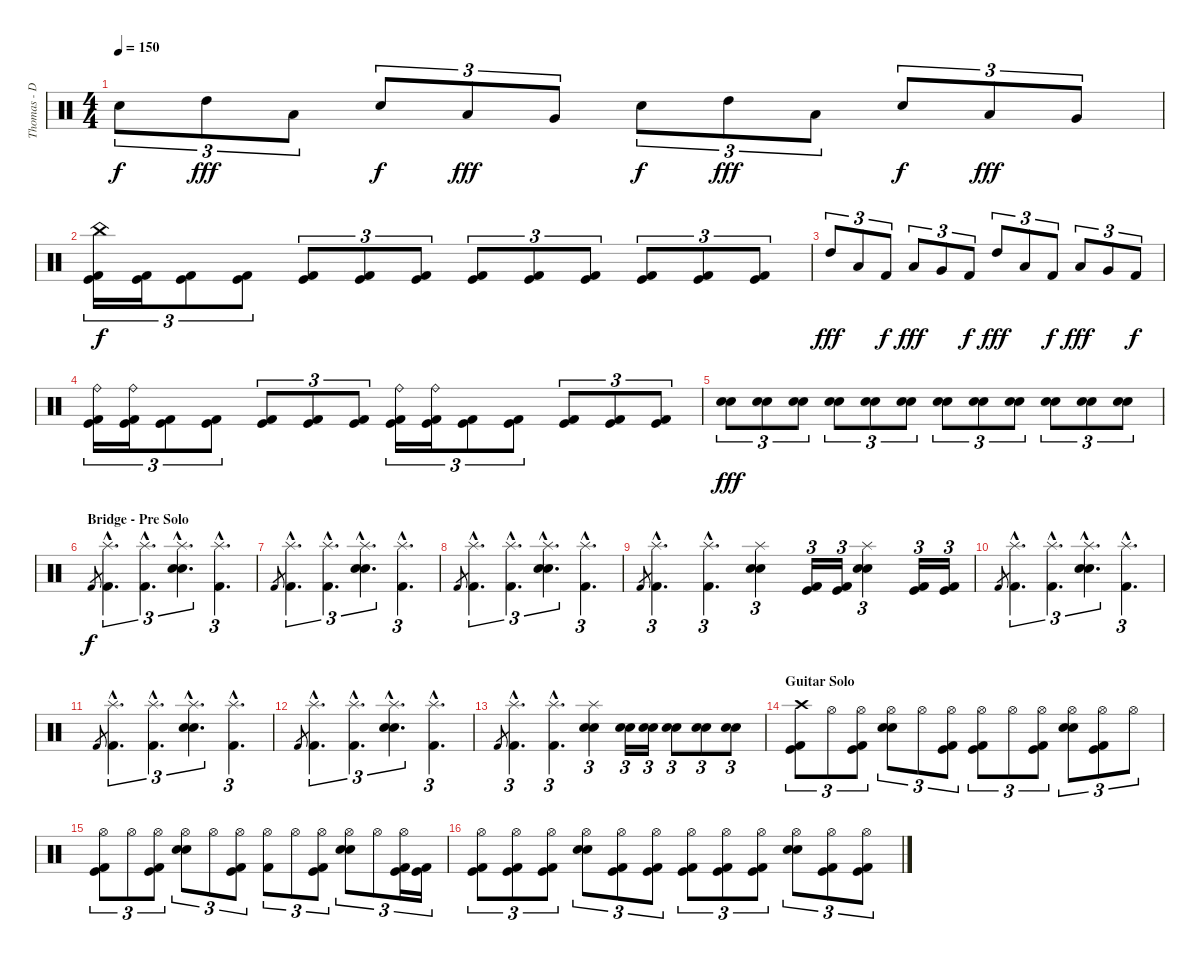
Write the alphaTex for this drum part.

\track ("Thomas - Drums" "Thomas - D") {instrument percussion}
\staff {score}
\articulation defaults
\ts (4 4)
\tempo 150
\clef neutral
\ks c "Electric Snare (hit)".8{tu (3 2) dy f} "High Tom (hit)".8{tu (3 2) dy fff} "Low Tom (hit)".8{tu (3 2)} "Electric Snare (hit)".8{tu (3 2) dy f} "Low Tom (hit)".8{tu (3 2) dy fff} "Very Low Tom (hit)".8{tu (3 2)} "Electric Snare (hit)".8{tu (3 2) dy f} "High Tom (hit)".8{tu (3 2) dy fff} "Low Tom (hit)".8{tu (3 2)} "Electric Snare (hit)".8{tu (3 2) dy f} "Low Tom (hit)".8{tu (3 2) dy fff} "Very Low Tom (hit)".8{tu (3 2)}
|
("China (hit)" "Kick (hit)" "Kick (hit) 2").16{tu (3 2) dy f} ("Kick (hit)" "Kick (hit) 2").16{tu (3 2)} ("Kick (hit)" "Kick (hit) 2").8{tu (3 2)} ("Kick (hit)" "Kick (hit) 2").8{tu (3 2)} ("Kick (hit)" "Kick (hit) 2").8{tu (3 2)} ("Kick (hit)" "Kick (hit) 2").8{tu (3 2)} ("Kick (hit)" "Kick (hit) 2").8{tu (3 2)} ("Kick (hit)" "Kick (hit) 2").8{tu (3 2)} ("Kick (hit)" "Kick (hit) 2").8{tu (3 2)} ("Kick (hit)" "Kick (hit) 2").8{tu (3 2)} ("Kick (hit)" "Kick (hit) 2").8{tu (3 2)} ("Kick (hit)" "Kick (hit) 2").8{tu (3 2)} ("Kick (hit)" "Kick (hit) 2").8{tu (3 2)} |
"High Tom (hit)".8{tu (3 2) dy fff} "Low Tom (hit)".8{tu (3 2)} "Kick (hit) 2".8{tu (3 2) dy f} "Low Tom (hit)".8{tu (3 2) dy fff} "Very Low Tom (hit)".8{tu (3 2)} "Kick (hit) 2".8{tu (3 2) dy f} "High Tom (hit)".8{tu (3 2) dy fff} "Low Tom (hit)".8{tu (3 2)} "Kick (hit) 2".8{tu (3 2) dy f} "Low Tom (hit)".8{tu (3 2) dy fff} "Very Low Tom (hit)".8{tu (3 2)} "Kick (hit) 2".8{tu (3 2) dy f} |
("Ride (bell)" "Kick (hit)" "Kick (hit) 2").16{tu (3 2)} ("Ride (bell)" "Kick (hit)" "Kick (hit) 2").16{tu (3 2)} ("Kick (hit)" "Kick (hit) 2").8{tu (3 2)} ("Kick (hit)" "Kick (hit) 2").8{tu (3 2)} ("Kick (hit)" "Kick (hit) 2").8{tu (3 2)} ("Kick (hit)" "Kick (hit) 2").8{tu (3 2)} ("Kick (hit)" "Kick (hit) 2").8{tu (3 2)} ("Ride (bell)" "Kick (hit)" "Kick (hit) 2").16{tu (3 2)} ("Ride (bell)" "Kick (hit)" "Kick (hit) 2").16{tu (3 2)} ("Kick (hit)" "Kick (hit) 2").8{tu (3 2)} ("Kick (hit)" "Kick (hit) 2").8{tu (3 2)} ("Kick (hit)" "Kick (hit) 2").8{tu (3 2)} ("Kick (hit)" "Kick (hit) 2").8{tu (3 2)} ("Kick (hit)" "Kick (hit) 2").8{tu (3 2)} |
("Electric Snare (hit)" "Electric Snare (hit)").8{tu (3 2) dy fff} ("Electric Snare (hit)" "Electric Snare (hit)").8{tu (3 2)} ("Electric Snare (hit)" "Electric Snare (hit)").8{tu (3 2)} ("Electric Snare (hit)" "Electric Snare (hit)").8{tu (3 2)} ("Electric Snare (hit)" "Electric Snare (hit)").8{tu (3 2)} ("Electric Snare (hit)" "Electric Snare (hit)").8{tu (3 2)} ("Electric Snare (hit)" "Electric Snare (hit)").8{tu (3 2)} ("Electric Snare (hit)" "Electric Snare (hit)").8{tu (3 2)} ("Electric Snare (hit)" "Electric Snare (hit)").8{tu (3 2)} ("Electric Snare (hit)" "Electric Snare (hit)").8{tu (3 2)} ("Electric Snare (hit)" "Electric Snare (hit)").8{tu (3 2)} ("Electric Snare (hit)" "Electric Snare (hit)").8{tu (3 2)} |
\section ("" "Bridge - Pre Solo")
"Kick (hit) 2".8{gr dy f} ("Splash (hit)"{hac} "Kick (hit) 2"{hac}).4{d tu (3 2)} ("Splash (hit)"{hac} "Kick (hit) 2"{hac}).4{d tu (3 2)} ("Splash (hit)"{hac} "Electric Snare (hit)"{hac} "Electric Snare (hit)"{hac}).4{d tu (3 2)} ("Splash (hit)"{hac} "Kick (hit) 2"{hac}).4{d tu (3 2)} |
"Kick (hit) 2".8{gr} ("Splash (hit)"{hac} "Kick (hit) 2"{hac}).4{d tu (3 2)} ("Splash (hit)"{hac} "Kick (hit) 2"{hac}).4{d tu (3 2)} ("Splash (hit)"{hac} "Electric Snare (hit)"{hac} "Electric Snare (hit)"{hac}).4{d tu (3 2)} ("Splash (hit)"{hac} "Kick (hit) 2"{hac}).4{d tu (3 2)} |
"Kick (hit) 2".8{gr} ("Splash (hit)"{hac} "Kick (hit) 2"{hac}).4{d tu (3 2)} ("Splash (hit)"{hac} "Kick (hit) 2"{hac}).4{d tu (3 2)} ("Splash (hit)"{hac} "Electric Snare (hit)"{hac} "Electric Snare (hit)"{hac}).4{d tu (3 2)} ("Splash (hit)"{hac} "Kick (hit) 2"{hac}).4{d tu (3 2)} |
"Kick (hit) 2".8{gr} ("Splash (hit)"{hac} "Kick (hit) 2"{hac}).4{d tu (3 2)} ("Splash (hit)"{hac} "Kick (hit) 2"{hac}).4{d tu (3 2)} ("Splash (hit)" "Electric Snare (hit)" "Electric Snare (hit)").4{tu (3 2)} ("Kick (hit)" "Kick (hit) 2").16{tu (3 2)} ("Kick (hit)" "Kick (hit) 2").16{tu (3 2)} ("Splash (hit)" "Electric Snare (hit)" "Electric Snare (hit)").4{tu (3 2)} ("Kick (hit)" "Kick (hit) 2").16{tu (3 2)} ("Kick (hit)" "Kick (hit) 2").16{tu (3 2)} |
"Kick (hit) 2".8{gr} ("Splash (hit)"{hac} "Kick (hit) 2"{hac}).4{d tu (3 2)} ("Splash (hit)"{hac} "Kick (hit) 2"{hac}).4{d tu (3 2)} ("Splash (hit)"{hac} "Electric Snare (hit)"{hac} "Electric Snare (hit)"{hac}).4{d tu (3 2)} ("Splash (hit)"{hac} "Kick (hit) 2"{hac}).4{d tu (3 2)} |
"Kick (hit) 2".8{gr} ("Splash (hit)"{hac} "Kick (hit) 2"{hac}).4{d tu (3 2)} ("Splash (hit)"{hac} "Kick (hit) 2"{hac}).4{d tu (3 2)} ("Splash (hit)"{hac} "Electric Snare (hit)"{hac} "Electric Snare (hit)"{hac}).4{d tu (3 2)} ("Splash (hit)"{hac} "Kick (hit) 2"{hac}).4{d tu (3 2)} |
"Kick (hit) 2".8{gr} ("Splash (hit)"{hac} "Kick (hit) 2"{hac}).4{d tu (3 2)} ("Splash (hit)"{hac} "Kick (hit) 2"{hac}).4{d tu (3 2)} ("Splash (hit)"{hac} "Electric Snare (hit)"{hac} "Electric Snare (hit)"{hac}).4{d tu (3 2)} ("Splash (hit)"{hac} "Kick (hit) 2"{hac}).4{d tu (3 2)} |
"Kick (hit) 2".8{gr} ("Splash (hit)"{hac} "Kick (hit) 2"{hac}).4{d tu (3 2)} ("Splash (hit)"{hac} "Kick (hit) 2"{hac}).4{d tu (3 2)} ("Splash (hit)" "Electric Snare (hit)" "Electric Snare (hit)").4{tu (3 2)} ("Electric Snare (hit)" "Electric Snare (hit)").16{tu (3 2)} ("Electric Snare (hit)" "Electric Snare (hit)").16{tu (3 2)} ("Electric Snare (hit)" "Electric Snare (hit)").8{tu (3 2)} ("Electric Snare (hit)" "Electric Snare (hit)").8{tu (3 2)} ("Electric Snare (hit)" "Electric Snare (hit)").8{tu (3 2)} |
\section ("" "Guitar Solo")
("Crash high (hit)" "Kick (hit)" "Kick (hit) 2").8{tu (3 2)} "Hi-Hat (open)".8{tu (3 2)} ("Hi-Hat (open)" "Kick (hit)" "Kick (hit) 2").8{tu (3 2)} ("Hi-Hat (open)" "Electric Snare (hit)" "Electric Snare (hit)").8{tu (3 2)} "Hi-Hat (open)".8{tu (3 2)} ("Hi-Hat (open)" "Kick (hit)" "Kick (hit) 2").8{tu (3 2)} ("Hi-Hat (open)" "Kick (hit)" "Kick (hit) 2").8{tu (3 2)} "Hi-Hat (open)".8{tu (3 2)} ("Hi-Hat (open)" "Kick (hit)" "Kick (hit) 2").8{tu (3 2)} ("Hi-Hat (open)" "Electric Snare (hit)" "Electric Snare (hit)").8{tu (3 2)} ("Hi-Hat (open)" "Kick (hit)" "Kick (hit) 2").8{tu (3 2)} "Hi-Hat (open)".8{tu (3 2)} |
("Hi-Hat (open)" "Kick (hit)" "Kick (hit) 2").8{tu (3 2)} "Hi-Hat (open)".8{tu (3 2)} ("Hi-Hat (open)" "Kick (hit)" "Kick (hit) 2").8{tu (3 2)} ("Hi-Hat (open)" "Electric Snare (hit)" "Electric Snare (hit)").8{tu (3 2)} "Hi-Hat (open)".8{tu (3 2)} ("Hi-Hat (open)" "Kick (hit)" "Kick (hit) 2").8{tu (3 2)} ("Hi-Hat (open)" "Kick (hit) 2").8{tu (3 2)} "Hi-Hat (open)".8{tu (3 2)} ("Hi-Hat (open)" "Kick (hit)" "Kick (hit) 2").8{tu (3 2)} ("Hi-Hat (open)" "Electric Snare (hit)" "Electric Snare (hit)").8{tu (3 2)} "Hi-Hat (open)".8{tu (3 2)} ("Hi-Hat (open)" "Kick (hit)" "Kick (hit) 2").16{tu (3 2)} ("Kick (hit)" "Kick (hit) 2").16{tu (3 2)} |
("Hi-Hat (open)" "Kick (hit)" "Kick (hit) 2").8{tu (3 2)} ("Hi-Hat (open)" "Kick (hit)" "Kick (hit) 2").8{tu (3 2)} ("Hi-Hat (open)" "Kick (hit)" "Kick (hit) 2").8{tu (3 2)} ("Hi-Hat (open)" "Electric Snare (hit)" "Electric Snare (hit)").8{tu (3 2)} ("Hi-Hat (open)" "Kick (hit)" "Kick (hit) 2").8{tu (3 2)} ("Hi-Hat (open)" "Kick (hit)" "Kick (hit) 2").8{tu (3 2)} ("Hi-Hat (open)" "Kick (hit)" "Kick (hit) 2").8{tu (3 2)} ("Hi-Hat (open)" "Kick (hit)" "Kick (hit) 2").8{tu (3 2)} ("Hi-Hat (open)" "Kick (hit)" "Kick (hit) 2").8{tu (3 2)} ("Hi-Hat (open)" "Electric Snare (hit)" "Electric Snare (hit)").8{tu (3 2)} ("Hi-Hat (open)" "Kick (hit)" "Kick (hit) 2").8{tu (3 2)} ("Hi-Hat (open)" "Kick (hit)" "Kick (hit) 2").8{tu (3 2)}
